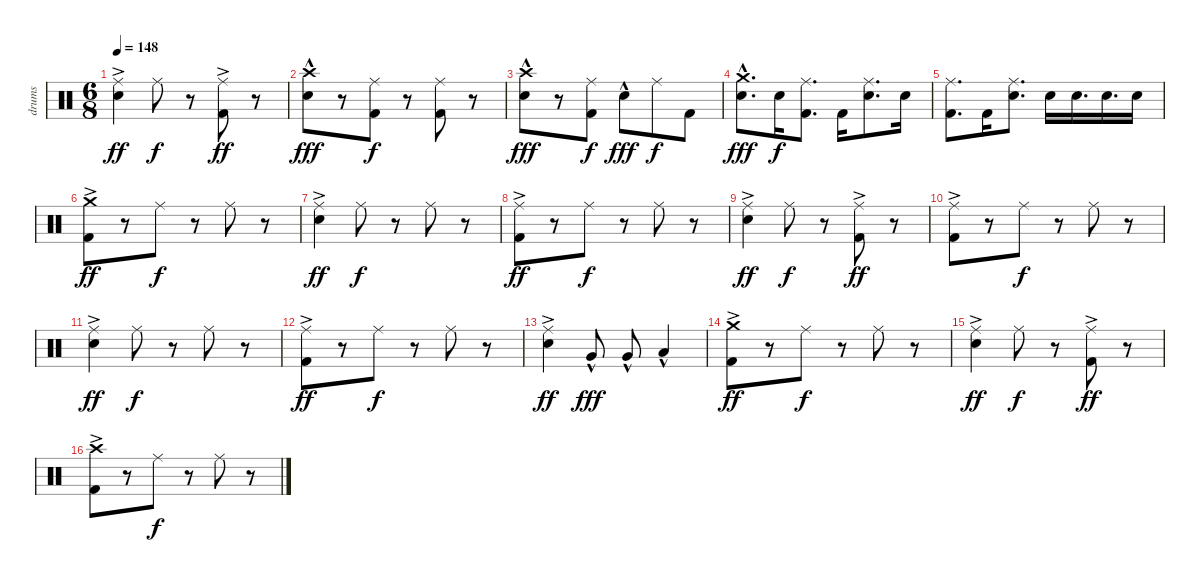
\track ("drums" "drums") {instrument percussion}
\staff {score}
\articulation defaults
\ts (6 8)
\tempo 148
\clef neutral
\ks c
("Ride (middle)" "Electric Snare (hit)"{ac}).4{dy ff} "Ride (middle)".8{dy f} r.8 ("Ride (middle)" "Kick (hit) 2"{ac}).8{dy ff} r.8 |
("Crash high (hit)" "Electric Snare (hit)"{hac}).8{dy fff} r.8 ("Ride (middle)" "Kick (hit) 2").8{dy f} r.8 ("Ride (middle)" "Kick (hit) 2").8 r.8 |
("Crash high (hit)" "Electric Snare (hit)"{hac}).8{dy fff} r.8 ("Ride (middle)" "Kick (hit) 2").8{dy f} "Electric Snare (hit)"{hac}.8{dy fff} "Ride (middle)".8{dy f} "Kick (hit) 2".8 |
("Crash medium (hit)" "Electric Snare (hit)"{hac}).8{d dy fff} "Electric Snare (hit)".16{dy f} ("Ride (middle)" "Kick (hit) 2").8{d} "Kick (hit) 2".16 ("Ride (middle)" "Electric Snare (hit)").8{d} "Electric Snare (hit)".16 |
("Ride (middle)" "Kick (hit) 2").8{d} "Kick (hit) 2".16 ("Ride (middle)" "Electric Snare (hit)").8{d} "Electric Snare (hit)".16 "Electric Snare (hit)".16{d} "Electric Snare (hit)".16{d} "Electric Snare (hit)".16 |
("Crash medium (hit)" "Kick (hit) 2"{ac}).8{dy ff} r.8 "Ride (middle)".8{dy f} r.8 "Ride (middle)".8 r.8 |
("Ride (middle)" "Electric Snare (hit)"{ac}).4{dy ff} "Ride (middle)".8{dy f} r.8 "Ride (middle)".8 r.8 |
("Ride (middle)" "Kick (hit) 2"{ac}).8{dy ff} r.8 "Ride (middle)".8{dy f} r.8 "Ride (middle)".8 r.8 |
("Ride (middle)" "Electric Snare (hit)"{ac}).4{dy ff} "Ride (middle)".8{dy f} r.8 ("Ride (middle)" "Kick (hit) 2"{ac}).8{dy ff} r.8 |
("Ride (middle)" "Kick (hit) 2"{ac}).8 r.8 "Ride (middle)".8{dy f} r.8 "Ride (middle)".8 r.8 |
("Ride (middle)" "Electric Snare (hit)"{ac}).4{dy ff} "Ride (middle)".8{dy f} r.8 "Ride (middle)".8 r.8 |
("Ride (middle)" "Kick (hit) 2"{ac}).8{dy ff} r.8 "Ride (middle)".8{dy f} r.8 "Ride (middle)".8 r.8 |
("Ride (middle)" "Electric Snare (hit)"{ac}).4{dy ff} "Very Low Tom (hit)"{hac}.8{dy fff} "Very Low Tom (hit)"{hac}.8 "Low Floor Tom (hit)"{hac}.4 |
("Crash medium (hit)" "Kick (hit) 2"{ac}).8{dy ff} r.8 "Ride (middle)".8{dy f} r.8 "Ride (middle)".8 r.8 |
("Ride (middle)" "Electric Snare (hit)"{ac}).4{dy ff} "Ride (middle)".8{dy f} r.8 ("Ride (middle)" "Kick (hit) 2"{ac}).8{dy ff} r.8 |
("Crash high (hit)" "Kick (hit) 2"{ac}).8 r.8 "Ride (middle)".8{dy f} r.8 "Ride (middle)".8 r.8
